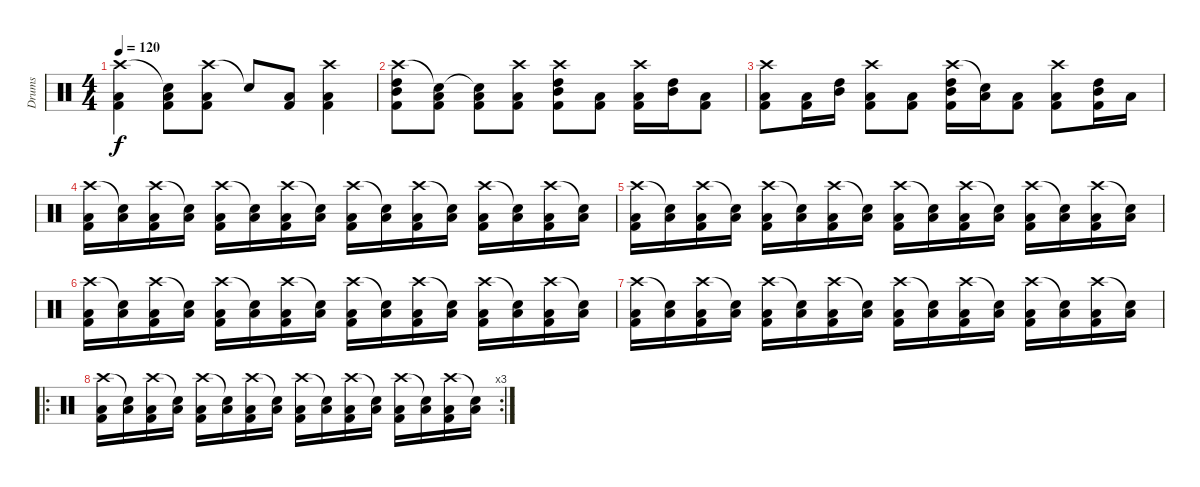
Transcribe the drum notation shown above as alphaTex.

\track ("Drums" "Drums") {instrument percussion}
\staff {score}
\articulation defaults
\ts (4 4)
\tempo 120
\clef neutral
\ks c
("Crash high (hit)" "Low Tom (hit)" "Kick (hit) 2").4{dy f} ("Snare (hit)"{t} "Low Tom (hit)" "Kick (hit) 2").8 ("Crash high (hit)" "Low Tom (hit)" "Kick (hit) 2").8 "Snare (hit)"{t}.8 ("Low Tom (hit)" "Kick (hit) 2").8 ("Crash high (hit)" "Low Tom (hit)" "Kick (hit) 2").4 |
("Crash high (hit)" "High Tom (hit)" "Mid Tom (hit)" "Kick (hit) 2").8 ("Snare (hit)"{t} "Low Tom (hit)" "Kick (hit) 2").8 ("Snare (hit)"{t} "Low Tom (hit)" "Kick (hit) 2").8 ("Crash high (hit)" "Low Tom (hit)" "Kick (hit) 2").8 ("Crash high (hit)" "High Tom (hit)" "Mid Tom (hit)" "Kick (hit) 2").8 ("Low Tom (hit)" "Kick (hit) 2").8 ("Crash high (hit)" "Low Tom (hit)" "Kick (hit) 2").16 ("High Tom (hit)" "Mid Tom (hit)").16 ("Low Tom (hit)" "Kick (hit) 2").8 |
("Crash high (hit)" "Low Tom (hit)" "Kick (hit) 2").8 ("Low Tom (hit)" "Kick (hit) 2").16 ("High Tom (hit)" "Mid Tom (hit)").16 ("Crash high (hit)" "Low Tom (hit)" "Kick (hit) 2").8 ("Low Tom (hit)" "Kick (hit) 2").8 ("Crash high (hit)" "High Tom (hit)" "Mid Tom (hit)" "Kick (hit) 2").16 ("Snare (hit)"{t} "Low Tom (hit)").16 ("Low Tom (hit)" "Kick (hit) 2").8 ("Crash high (hit)" "Low Tom (hit)" "Kick (hit) 2").8 ("High Tom (hit)" "Mid Tom (hit)" "Kick (hit) 2").16 "Low Tom (hit)".16 |
("Crash high (hit)" "Low Tom (hit)" "Kick (hit) 2").16 ("Snare (hit)"{t} "Low Tom (hit)").16 ("Crash high (hit)" "Low Tom (hit)" "Kick (hit) 2").16 ("Snare (hit)"{t} "Low Tom (hit)").16 ("Crash high (hit)" "Low Tom (hit)" "Kick (hit) 2").16 ("Snare (hit)"{t} "Low Tom (hit)").16 ("Crash high (hit)" "Low Tom (hit)" "Kick (hit) 2").16 ("Snare (hit)"{t} "Low Tom (hit)").16 ("Crash high (hit)" "Low Tom (hit)" "Kick (hit) 2").16 ("Snare (hit)"{t} "Low Tom (hit)").16 ("Crash high (hit)" "Low Tom (hit)" "Kick (hit) 2").16 ("Snare (hit)"{t} "Low Tom (hit)").16 ("Crash high (hit)" "Low Tom (hit)" "Kick (hit) 2").16 ("Snare (hit)"{t} "Low Tom (hit)").16 ("Crash high (hit)" "Low Tom (hit)" "Kick (hit) 2").16 ("Snare (hit)"{t} "Low Tom (hit)").16 |
("Crash high (hit)" "Low Tom (hit)" "Kick (hit) 2").16 ("Snare (hit)"{t} "Low Tom (hit)").16 ("Crash high (hit)" "Low Tom (hit)" "Kick (hit) 2").16 ("Snare (hit)"{t} "Low Tom (hit)").16 ("Crash high (hit)" "Low Tom (hit)" "Kick (hit) 2").16 ("Snare (hit)"{t} "Low Tom (hit)").16 ("Crash high (hit)" "Low Tom (hit)" "Kick (hit) 2").16 ("Snare (hit)"{t} "Low Tom (hit)").16 ("Crash high (hit)" "Low Tom (hit)" "Kick (hit) 2").16 ("Snare (hit)"{t} "Low Tom (hit)").16 ("Crash high (hit)" "Low Tom (hit)" "Kick (hit) 2").16 ("Snare (hit)"{t} "Low Tom (hit)").16 ("Crash high (hit)" "Low Tom (hit)" "Kick (hit) 2").16 ("Snare (hit)"{t} "Low Tom (hit)").16 ("Crash high (hit)" "Low Tom (hit)" "Kick (hit) 2").16 ("Snare (hit)"{t} "Low Tom (hit)").16 |
("Crash high (hit)" "Low Tom (hit)" "Kick (hit) 2").16 ("Snare (hit)"{t} "Low Tom (hit)").16 ("Crash high (hit)" "Low Tom (hit)" "Kick (hit) 2").16 ("Snare (hit)"{t} "Low Tom (hit)").16 ("Crash high (hit)" "Low Tom (hit)" "Kick (hit) 2").16 ("Snare (hit)"{t} "Low Tom (hit)").16 ("Crash high (hit)" "Low Tom (hit)" "Kick (hit) 2").16 ("Snare (hit)"{t} "Low Tom (hit)").16 ("Crash high (hit)" "Low Tom (hit)" "Kick (hit) 2").16 ("Snare (hit)"{t} "Low Tom (hit)").16 ("Crash high (hit)" "Low Tom (hit)" "Kick (hit) 2").16 ("Snare (hit)"{t} "Low Tom (hit)").16 ("Crash high (hit)" "Low Tom (hit)" "Kick (hit) 2").16 ("Snare (hit)"{t} "Low Tom (hit)").16 ("Crash high (hit)" "Low Tom (hit)" "Kick (hit) 2").16 ("Snare (hit)"{t} "Low Tom (hit)").16 |
("Crash high (hit)" "Low Tom (hit)" "Kick (hit) 2").16 ("Snare (hit)"{t} "Low Tom (hit)").16 ("Crash high (hit)" "Low Tom (hit)" "Kick (hit) 2").16 ("Snare (hit)"{t} "Low Tom (hit)").16 ("Crash high (hit)" "Low Tom (hit)" "Kick (hit) 2").16 ("Snare (hit)"{t} "Low Tom (hit)").16 ("Crash high (hit)" "Low Tom (hit)" "Kick (hit) 2").16 ("Snare (hit)"{t} "Low Tom (hit)").16 ("Crash high (hit)" "Low Tom (hit)" "Kick (hit) 2").16 ("Snare (hit)"{t} "Low Tom (hit)").16 ("Crash high (hit)" "Low Tom (hit)" "Kick (hit) 2").16 ("Snare (hit)"{t} "Low Tom (hit)").16 ("Crash high (hit)" "Low Tom (hit)" "Kick (hit) 2").16 ("Snare (hit)"{t} "Low Tom (hit)").16 ("Crash high (hit)" "Low Tom (hit)" "Kick (hit) 2").16 ("Snare (hit)"{t} "Low Tom (hit)").16 |
\ro
\rc 3
("Crash high (hit)" "Low Tom (hit)" "Kick (hit) 2").16 ("Snare (hit)"{t} "Low Tom (hit)").16 ("Crash high (hit)" "Low Tom (hit)" "Kick (hit) 2").16 ("Snare (hit)"{t} "Low Tom (hit)").16 ("Crash high (hit)" "Low Tom (hit)" "Kick (hit) 2").16 ("Snare (hit)"{t} "Low Tom (hit)").16 ("Crash high (hit)" "Low Tom (hit)" "Kick (hit) 2").16 ("Snare (hit)"{t} "Low Tom (hit)").16 ("Crash high (hit)" "Low Tom (hit)" "Kick (hit) 2").16 ("Snare (hit)"{t} "Low Tom (hit)").16 ("Crash high (hit)" "Low Tom (hit)" "Kick (hit) 2").16 ("Snare (hit)"{t} "Low Tom (hit)").16 ("Crash high (hit)" "Low Tom (hit)" "Kick (hit) 2").16 ("Snare (hit)"{t} "Low Tom (hit)").16 ("Crash high (hit)" "Low Tom (hit)" "Kick (hit) 2").16 ("Snare (hit)"{t} "Low Tom (hit)").16{volume 0}
